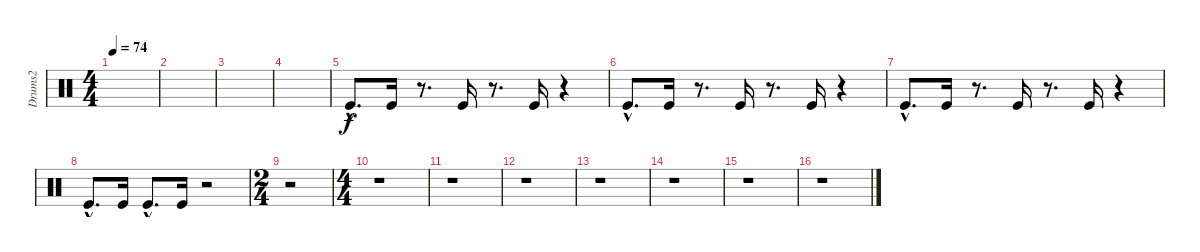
\track ("Drums2" "Drums2") {instrument percussion}
\staff {score}
\articulation defaults
\ts (4 4)
\tempo 74
\clef neutral
\ks c
|
|
|
|
"Kick (hit)"{hac}.8{d} "Kick (hit)".16 r.8{d} "Kick (hit)".16 r.8{d} "Kick (hit)".16 r.4 |
"Kick (hit)"{hac}.8{d} "Kick (hit)".16 r.8{d} "Kick (hit)".16 r.8{d} "Kick (hit)".16 r.4 |
"Kick (hit)"{hac}.8{d} "Kick (hit)".16 r.8{d} "Kick (hit)".16 r.8{d} "Kick (hit)".16 r.4 |
"Kick (hit)"{hac}.8{d} "Kick (hit)".16 "Kick (hit)"{hac}.8{d} "Kick (hit)".16 r.2 |
\ts (2 4)
r.2 |
\ts (4 4)
r.1 |
r.1 |
r.1 |
r.1 |
r.1 |
r.1 |
r.1
